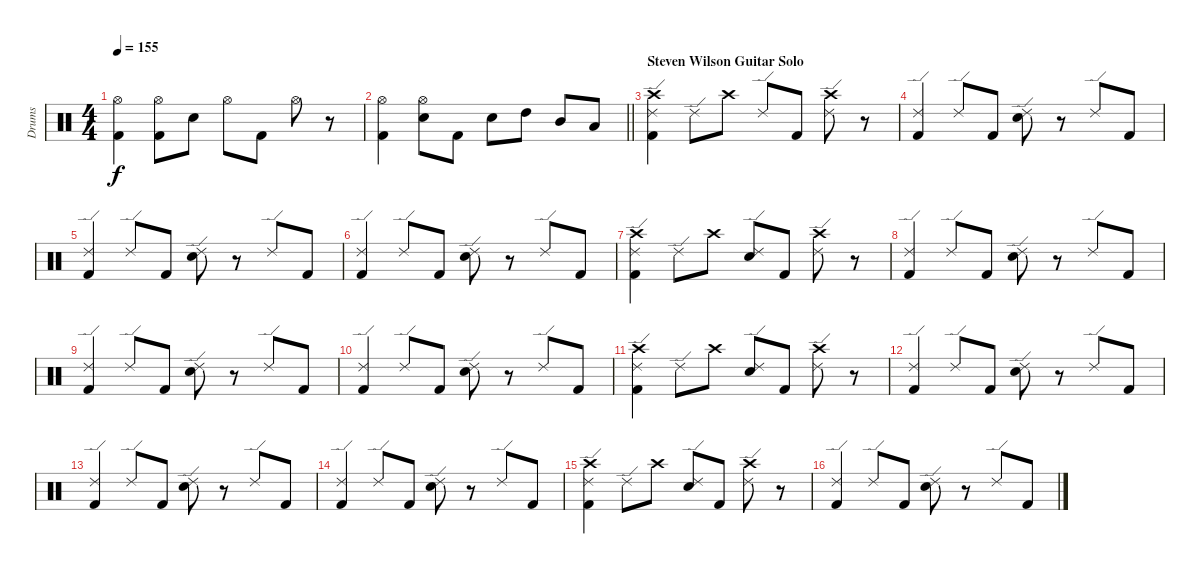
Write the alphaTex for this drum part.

\track ("Drums" "Drums") {instrument percussion}
\staff {score}
\articulation defaults
\ts (4 4)
\tempo 155
\clef neutral
\ks c
("Hi-Hat (open)" "Kick (hit) 2").4{dy f} ("Hi-Hat (open)" "Kick (hit) 2").8 "Electric Snare (hit)".8 "Hi-Hat (open)".8 "Kick (hit) 2".8 "Hi-Hat (open)".8 r.8 |
\barLineRight lightlight
("Hi-Hat (open)" "Kick (hit) 2").4 ("Hi-Hat (open)" "Electric Snare (hit)").8 "Kick (hit) 2".8 "Electric Snare (hit)".8 "High Tom (hit)".8 "Mid Tom (hit)".8 "Low Tom (hit)".8 |
\section ("" "Steven Wilson Guitar Solo")
("Ride (edge) 2" "Crash high (hit)" "Kick (hit) 2").4{volume 9} "Ride (edge) 2".8 "Crash high (hit)".8 "Ride (edge) 2".8 "Kick (hit) 2".8 ("Ride (edge) 2" "Crash high (hit)").8 r.8 |
("Ride (edge) 2" "Kick (hit) 2").4 "Ride (edge) 2".8 "Kick (hit) 2".8 ("Ride (edge) 2" "Electric Snare (hit)").8 r.8 "Ride (edge) 2".8 "Kick (hit) 2".8 |
("Ride (edge) 2" "Kick (hit) 2").4 "Ride (edge) 2".8 "Kick (hit) 2".8 ("Ride (edge) 2" "Electric Snare (hit)").8 r.8 "Ride (edge) 2".8 "Kick (hit) 2".8 |
("Ride (edge) 2" "Kick (hit) 2").4 "Ride (edge) 2".8 "Kick (hit) 2".8 ("Ride (edge) 2" "Electric Snare (hit)").8 r.8 "Ride (edge) 2".8 "Kick (hit) 2".8 |
("Ride (edge) 2" "Crash high (hit)" "Kick (hit) 2").4 "Ride (edge) 2".8 "Crash high (hit)".8 ("Ride (edge) 2" "Electric Snare (hit)").8 "Kick (hit) 2".8 ("Ride (edge) 2" "Crash high (hit)").8 r.8 |
("Ride (edge) 2" "Kick (hit) 2").4 "Ride (edge) 2".8 "Kick (hit) 2".8 ("Ride (edge) 2" "Electric Snare (hit)").8 r.8 "Ride (edge) 2".8 "Kick (hit) 2".8 |
("Ride (edge) 2" "Kick (hit) 2").4 "Ride (edge) 2".8 "Kick (hit) 2".8 ("Ride (edge) 2" "Electric Snare (hit)").8 r.8 "Ride (edge) 2".8 "Kick (hit) 2".8 |
("Ride (edge) 2" "Kick (hit) 2").4 "Ride (edge) 2".8 "Kick (hit) 2".8 ("Ride (edge) 2" "Electric Snare (hit)").8 r.8 "Ride (edge) 2".8 "Kick (hit) 2".8 |
("Ride (edge) 2" "Crash high (hit)" "Kick (hit) 2").4 "Ride (edge) 2".8 "Crash high (hit)".8 ("Ride (edge) 2" "Electric Snare (hit)").8 "Kick (hit) 2".8 ("Ride (edge) 2" "Crash high (hit)").8 r.8 |
("Ride (edge) 2" "Kick (hit) 2").4 "Ride (edge) 2".8 "Kick (hit) 2".8 ("Ride (edge) 2" "Electric Snare (hit)").8 r.8 "Ride (edge) 2".8 "Kick (hit) 2".8 |
("Ride (edge) 2" "Kick (hit) 2").4 "Ride (edge) 2".8 "Kick (hit) 2".8 ("Ride (edge) 2" "Electric Snare (hit)").8 r.8 "Ride (edge) 2".8 "Kick (hit) 2".8 |
("Ride (edge) 2" "Kick (hit) 2").4 "Ride (edge) 2".8 "Kick (hit) 2".8 ("Ride (edge) 2" "Electric Snare (hit)").8 r.8 "Ride (edge) 2".8 "Kick (hit) 2".8 |
("Ride (edge) 2" "Crash high (hit)" "Kick (hit) 2").4 "Ride (edge) 2".8 "Crash high (hit)".8 ("Ride (edge) 2" "Electric Snare (hit)").8 "Kick (hit) 2".8 ("Ride (edge) 2" "Crash high (hit)").8 r.8 |
("Ride (edge) 2" "Kick (hit) 2").4 "Ride (edge) 2".8 "Kick (hit) 2".8 ("Ride (edge) 2" "Electric Snare (hit)").8 r.8 "Ride (edge) 2".8 "Kick (hit) 2".8
